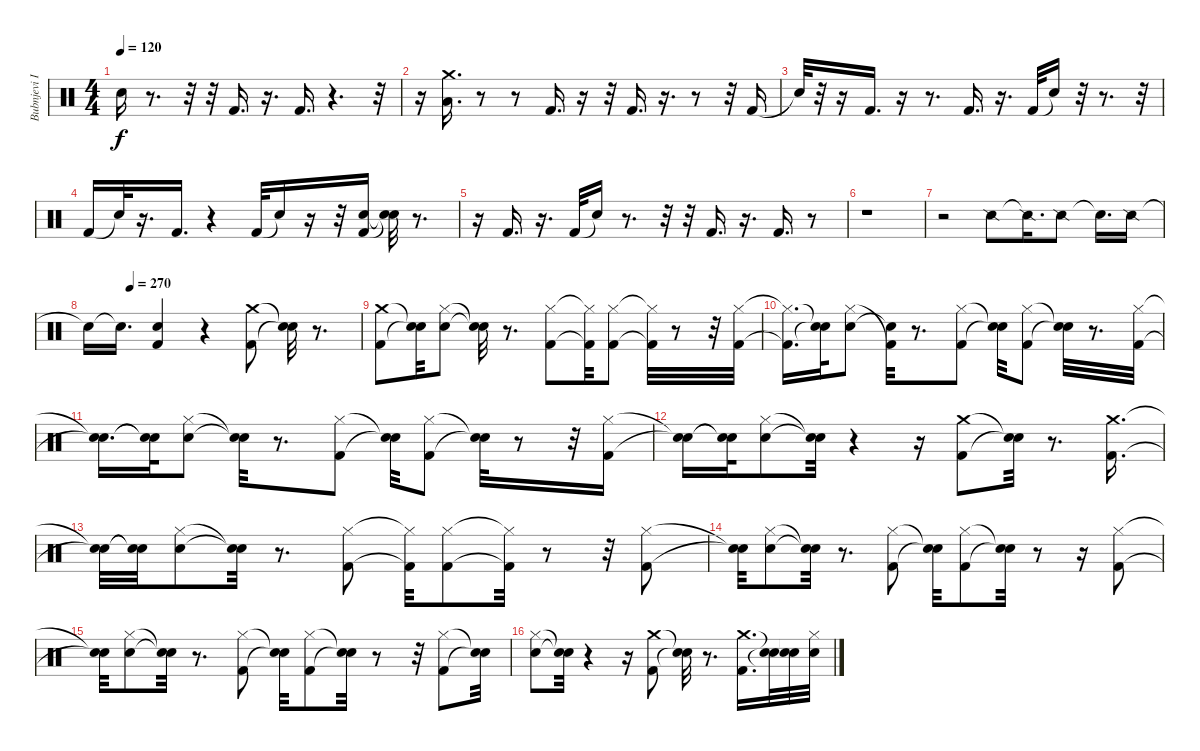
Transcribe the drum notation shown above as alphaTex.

\track ("Bubnjevi Ipe Ivandic" "Bubnjevi I") {instrument percussion}
\staff {score}
\articulation defaults
\ts (4 4)
\tempo 120
\clef neutral
\ks c "Snare (hit)"{t}.16{dy f}
r.8{d} r.32 r.32 "Kick (hit) 2".16{d} r.16{d} "Kick (hit) 2".16{d} r.4{d} r.32 |
r.16 ("Low Tom (hit)" "Crash medium (hit)").16{d} r.8 r.8 "Kick (hit) 2".16{d} r.16 r.32 "Kick (hit) 2".16{d} r.16{d} r.8 r.32 "Kick (hit) 2".16 |
"Snare (hit)"{t}.32 r.32 r.16 "Kick (hit) 2".16{d} r.16 r.8{d} "Kick (hit) 2".16{d} r.16{d} "Kick (hit) 2".32 "Snare (hit)"{t}.16 r.32 r.8{d} r.32 |
"Kick (hit) 2".16 "Snare (hit)"{t}.32 r.16{d} "Kick (hit) 2".16{d} r.4 "Kick (hit) 2".32 "Snare (hit)"{t}.16 r.16 r.32 ("Kick (hit) 2" "Snare (hit) 2").16 ("Snare (hit)"{t} "Snare (hit)"{t}).32 r.8{d} |
r.16 "Kick (hit) 2".16{d} r.16{d} "Kick (hit) 2".32 "Snare (hit)"{t}.16 r.8{d} r.32 r.32 "Kick (hit) 2".16{d} r.16{d} "Kick (hit) 2".16{d} r.8 |
r.1 |
r.2 "Snare (side stick) 2".8 "Snare (side stick) 2"{t}.16{d} "Snare (side stick) 2".8 "Snare (hit)"{t}.16{d} "Snare (side stick) 2".16 |
\tempo (270 0.15625)
"Snare (hit)"{t}.16 "Snare (hit)"{t}.16{d} ("Kick (hit) 2" "Snare (hit) 2").4 r.4 ("Kick (hit) 2" "Crash medium (hit)").8 ("Snare (hit)"{t} "Snare (hit)"{t}).32 r.8{d} |
("Kick (hit) 2" "Crash medium (hit)").8 ("Snare (hit)"{t} "Snare (hit)"{t}).32 ("Hi-Hat (closed)" "Snare (hit) 2").8 ("Snare (hit)"{t} "Snare (hit)"{t}).32 r.8{d} ("Kick (hit) 2" "Hi-Hat (closed)").8 ("Kick (hit) 2"{t} "Hi-Hat (closed)"{t}).32 ("Kick (hit) 2" "Hi-Hat (closed)").8 ("Kick (hit) 2"{t} "Hi-Hat (closed)"{t}).32 r.8 r.32 ("Kick (hit) 2" "Hi-Hat (closed)").32 |
("Kick (hit) 2"{t} "Hi-Hat (closed)"{t}).16{d} ("Snare (hit)"{t} "Snare (hit)"{t}).32 ("Hi-Hat (closed)" "Snare (hit) 2").8 ("Kick (hit) 2"{t} "Snare (hit) 2"{t}).32 r.8{d} ("Kick (hit) 2" "Hi-Hat (closed)").8 ("Snare (hit)"{t} "Snare (hit)"{t}).32 ("Kick (hit) 2" "Hi-Hat (closed)").8 ("Snare (hit)"{t} "Snare (hit)"{t}).32 r.8{d} ("Kick (hit) 2" "Hi-Hat (closed)").32 |
("Snare (hit)"{t} "Snare (hit)"{t}).16{d} ("Snare (hit)"{t} "Snare (hit)"{t}).32 ("Hi-Hat (closed)" "Snare (hit) 2").8 ("Snare (hit)"{t} "Snare (hit)"{t}).32 r.8{d} ("Kick (hit) 2" "Hi-Hat (closed)").8 ("Snare (hit)"{t} "Snare (hit)"{t}).32 ("Kick (hit) 2" "Hi-Hat (closed)").8 ("Snare (hit)"{t} "Snare (hit)"{t}).32 r.8 r.32 ("Kick (hit) 2" "Hi-Hat (closed)").16 |
("Snare (hit)"{t} "Snare (hit)"{t}).16 ("Snare (hit)"{t} "Snare (hit)"{t}).32 ("Hi-Hat (closed)" "Snare (hit) 2").8 ("Snare (hit)"{t} "Snare (hit)"{t}).32 r.4 r.16 ("Kick (hit) 2" "Crash medium (hit)").8 ("Snare (hit)"{t} "Snare (hit)"{t}).32 r.8{d} ("Kick (hit) 2" "Crash medium (hit)").16{d} |
("Snare (hit)"{t} "Snare (hit)"{t}).32 ("Snare (hit)"{t} "Snare (hit)"{t}).32 ("Hi-Hat (closed)" "Snare (hit) 2").8 ("Snare (hit)"{t} "Snare (hit)"{t}).32 r.8{d} ("Kick (hit) 2" "Hi-Hat (closed)").8 ("Kick (hit) 2"{t} "Hi-Hat (closed)"{t}).32 ("Kick (hit) 2" "Hi-Hat (closed)").8 ("Kick (hit) 2"{t} "Hi-Hat (closed)"{t}).32 r.8 r.32 ("Kick (hit) 2" "Hi-Hat (closed)").8 |
("Snare (hit)"{t} "Snare (hit)"{t}).32 ("Hi-Hat (closed)" "Snare (hit) 2").8 ("Snare (hit)"{t} "Snare (hit)"{t}).32 r.8{d} ("Kick (hit) 2" "Hi-Hat (closed)").8 ("Snare (hit)"{t} "Snare (hit)"{t}).32 ("Kick (hit) 2" "Hi-Hat (closed)").8 ("Snare (hit)"{t} "Snare (hit)"{t}).32 r.8 r.16 ("Kick (hit) 2" "Hi-Hat (closed)").8 |
("Snare (hit)"{t} "Snare (hit)"{t}).32 ("Hi-Hat (closed)" "Snare (hit) 2").8 ("Snare (hit)"{t} "Snare (hit)"{t}).32 r.8{d} ("Kick (hit) 2" "Hi-Hat (closed)").8 ("Snare (hit)"{t} "Snare (hit)"{t}).32 ("Kick (hit) 2" "Hi-Hat (closed)").8 ("Snare (hit)"{t} "Snare (hit)"{t}).32 r.8 r.32 ("Kick (hit) 2" "Hi-Hat (closed)").8 ("Snare (hit)"{t} "Snare (hit)"{t}).32 |
("Hi-Hat (closed)" "Snare (hit) 2").8 ("Snare (hit)"{t} "Snare (hit)"{t}).32 r.4 r.16 ("Kick (hit) 2" "Crash medium (hit)").8 ("Snare (hit)"{t} "Snare (hit)"{t}).32 r.8{d} ("Kick (hit) 2" "Crash medium (hit)").16{d} ("Snare (hit)"{t} "Snare (hit)"{t}).32 ("Snare (hit)"{t} "Snare (hit)"{t}).32 ("Hi-Hat (closed)" "Snare (hit) 2").32
